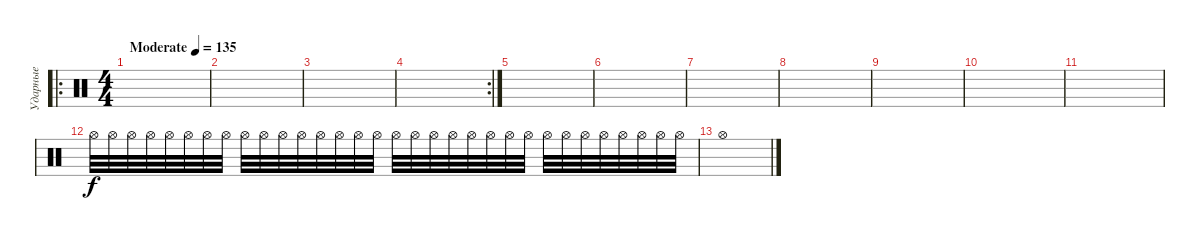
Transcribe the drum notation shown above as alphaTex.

\track ("Ударные" "Ударные") {instrument percussion}
\staff {score}
\articulation defaults
\ro
\ts (4 4)
\tempo (135 "Moderate")
\clef neutral
\ks c
|
|
|
\rc 2
|
|
|
|
|
|
|
|
"Hi-Hat (open)".32{volume 1} "Hi-Hat (open)".32{volume 11} "Hi-Hat (open)".32 "Hi-Hat (open)".32 "Hi-Hat (open)".32 "Hi-Hat (open)".32 "Hi-Hat (open)".32 "Hi-Hat (open)".32 "Hi-Hat (open)".32 "Hi-Hat (open)".32 "Hi-Hat (open)".32 "Hi-Hat (open)".32 "Hi-Hat (open)".32 "Hi-Hat (open)".32 "Hi-Hat (open)".32 "Hi-Hat (open)".32 "Hi-Hat (open)".32 "Hi-Hat (open)".32 "Hi-Hat (open)".32 "Hi-Hat (open)".32 "Hi-Hat (open)".32 "Hi-Hat (open)".32 "Hi-Hat (open)".32 "Hi-Hat (open)".32 "Hi-Hat (open)".32 "Hi-Hat (open)".32 "Hi-Hat (open)".32 "Hi-Hat (open)".32 "Hi-Hat (open)".32 "Hi-Hat (open)".32 "Hi-Hat (open)".32 "Hi-Hat (open)".32 |
"Hi-Hat (open)".1
